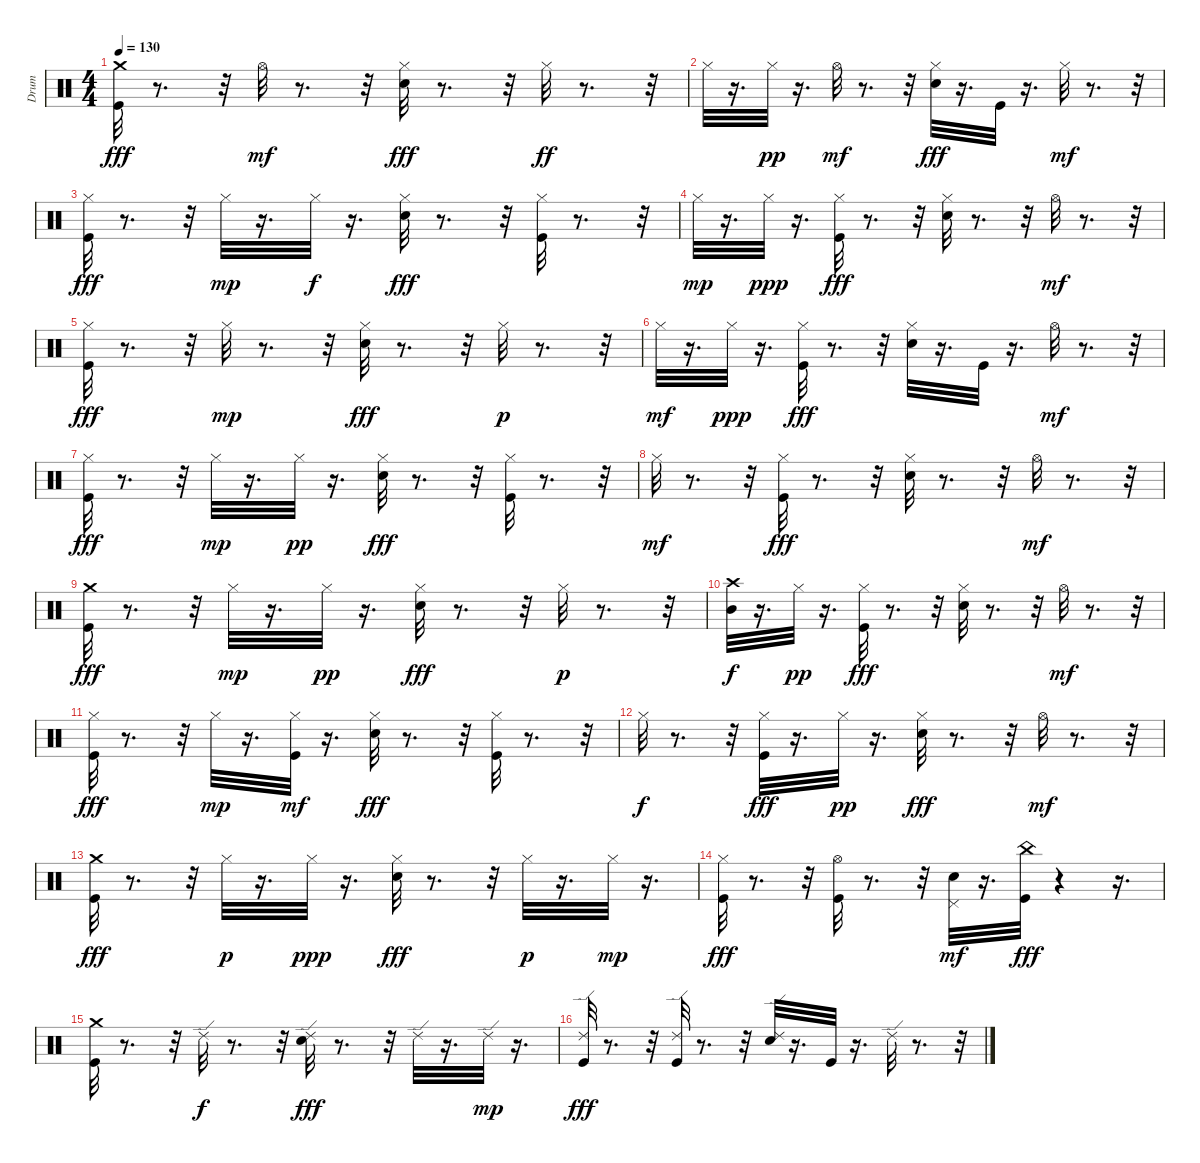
\track ("Drum" "Drum") {instrument percussion}
\staff {score}
\articulation defaults
\ts (4 4)
\tempo 130
\clef neutral
\ks c
("Crash medium (hit)" "Kick (hit)").32{dy fff} r.8{d} r.32 "Hi-Hat (open)".32{dy mf} r.8{d} r.32 ("Hi-Hat (closed)" "Snare (hit) 2").32{dy fff} r.8{d} r.32 "Hi-Hat (closed)".32{dy ff} r.8{d} r.32 |
"Hi-Hat (closed)".32 r.16{d} "Hi-Hat (closed)".32{dy pp} r.16{d} "Hi-Hat (open)".32{dy mf} r.8{d} r.32 ("Hi-Hat (closed)" "Snare (hit) 2").32{dy fff} r.16{d} "Kick (hit)".32 r.16{d} "Hi-Hat (closed)".32{dy mf} r.8{d} r.32 |
("Hi-Hat (closed)" "Kick (hit)").32{dy fff} r.8{d} r.32 "Hi-Hat (closed)".32{dy mp} r.16{d} "Hi-Hat (closed)".32{dy f} r.16{d} ("Hi-Hat (closed)" "Snare (hit) 2").32{dy fff} r.8{d} r.32 ("Hi-Hat (closed)" "Kick (hit)").32 r.8{d} r.32 |
"Hi-Hat (closed)".32{dy mp} r.16{d} "Hi-Hat (closed)".32{dy ppp} r.16{d} ("Hi-Hat (closed)" "Kick (hit)").32{dy fff} r.8{d} r.32 ("Hi-Hat (closed)" "Snare (hit) 2").32 r.8{d} r.32 "Hi-Hat (open)".32{dy mf} r.8{d} r.32 |
("Hi-Hat (closed)" "Kick (hit)").32{dy fff} r.8{d} r.32 "Hi-Hat (closed)".32{dy mp} r.8{d} r.32 ("Hi-Hat (closed)" "Snare (hit) 2").32{dy fff} r.8{d} r.32 "Hi-Hat (closed)".32{dy p} r.8{d} r.32 |
"Hi-Hat (closed)".32{dy mf} r.16{d} "Hi-Hat (closed)".32{dy ppp} r.16{d} ("Hi-Hat (closed)" "Kick (hit)").32{dy fff} r.8{d} r.32 ("Hi-Hat (closed)" "Snare (hit) 2").32 r.16{d} "Kick (hit)".32 r.16{d} "Hi-Hat (open)".32{dy mf} r.8{d} r.32 |
("Hi-Hat (closed)" "Kick (hit)").32{dy fff} r.8{d} r.32 "Hi-Hat (closed)".32{dy mp} r.16{d} "Hi-Hat (closed)".32{dy pp} r.16{d} ("Hi-Hat (closed)" "Snare (hit) 2").32{dy fff} r.8{d} r.32 ("Hi-Hat (closed)" "Kick (hit)").32 r.8{d} r.32 |
"Hi-Hat (closed)".32{dy mf} r.8{d} r.32 ("Hi-Hat (closed)" "Kick (hit)").32{dy fff} r.8{d} r.32 ("Hi-Hat (closed)" "Snare (hit) 2").32 r.8{d} r.32 "Hi-Hat (open)".32{dy mf} r.8{d} r.32 |
("Crash medium (hit)" "Kick (hit)").32{dy fff volume 8} r.8{d} r.32 "Hi-Hat (closed)".32{dy mp} r.16{d} "Hi-Hat (closed)".32{dy pp} r.16{d} ("Hi-Hat (closed)" "Snare (hit) 2").32{dy fff} r.8{d} r.32 "Hi-Hat (closed)".32{dy p} r.8{d} r.32 |
("Crash high (hit)" "Mid Tom (hit)").32{dy f} r.16{d} "Hi-Hat (closed)".32{dy pp} r.16{d} ("Hi-Hat (closed)" "Kick (hit)").32{dy fff} r.8{d} r.32 ("Hi-Hat (closed)" "Snare (hit) 2").32 r.8{d} r.32 "Hi-Hat (open)".32{dy mf} r.8{d} r.32 |
("Hi-Hat (closed)" "Kick (hit)").32{dy fff} r.8{d} r.32 "Hi-Hat (closed)".32{dy mp} r.16{d} ("Hi-Hat (closed)" "Kick (hit)").32{dy mf} r.16{d} ("Hi-Hat (closed)" "Snare (hit) 2").32{dy fff} r.8{d} r.32 ("Hi-Hat (closed)" "Kick (hit)").32 r.8{d} r.32 |
"Hi-Hat (closed)".32{dy f} r.8{d} r.32 ("Hi-Hat (closed)" "Kick (hit)").32{dy fff} r.16{d} "Hi-Hat (closed)".32{dy pp} r.16{d} ("Hi-Hat (closed)" "Snare (hit) 2").32{dy fff} r.8{d} r.32 "Hi-Hat (open)".32{dy mf} r.8{d} r.32 |
("Crash medium (hit)" "Kick (hit)").32{dy fff} r.8{d} r.32 "Hi-Hat (closed)".32{dy p} r.16{d} "Hi-Hat (closed)".32{dy ppp} r.16{d} ("Hi-Hat (closed)" "Snare (hit) 2").32{dy fff} r.8{d} r.32 "Hi-Hat (closed)".32{dy p} r.16{d} "Hi-Hat (closed)".32{dy mp} r.16{d} |
("Hi-Hat (closed)" "Kick (hit)").32{dy fff} r.8{d} r.32 ("Hi-Hat (open)" "Kick (hit)").32 r.8{d} r.32 ("Snare (hit) 2" "Pedal Hi-Hat (hit)").32{dy mf} r.16{d} ("China (hit)" "Kick (hit)").32{dy fff} r.4 r.16{d} |
("Crash medium (hit)" "Kick (hit)").32 r.8{d} r.32 "Ride (edge) 2".32{dy f} r.8{d} r.32 ("Snare (hit) 2" "Ride (edge) 2").32{dy fff} r.8{d} r.32 "Ride (edge) 2".32 r.16{d} "Ride (edge) 2".32{dy mp} r.16{d} |
("Ride (edge) 2" "Kick (hit)").32{dy fff} r.8{d} r.32 ("Ride (edge) 2" "Kick (hit)").32 r.8{d} r.32 ("Snare (hit) 2" "Ride (edge) 2").32 r.16{d} "Kick (hit)".32 r.16{d} "Ride (edge) 2".32 r.8{d} r.32
